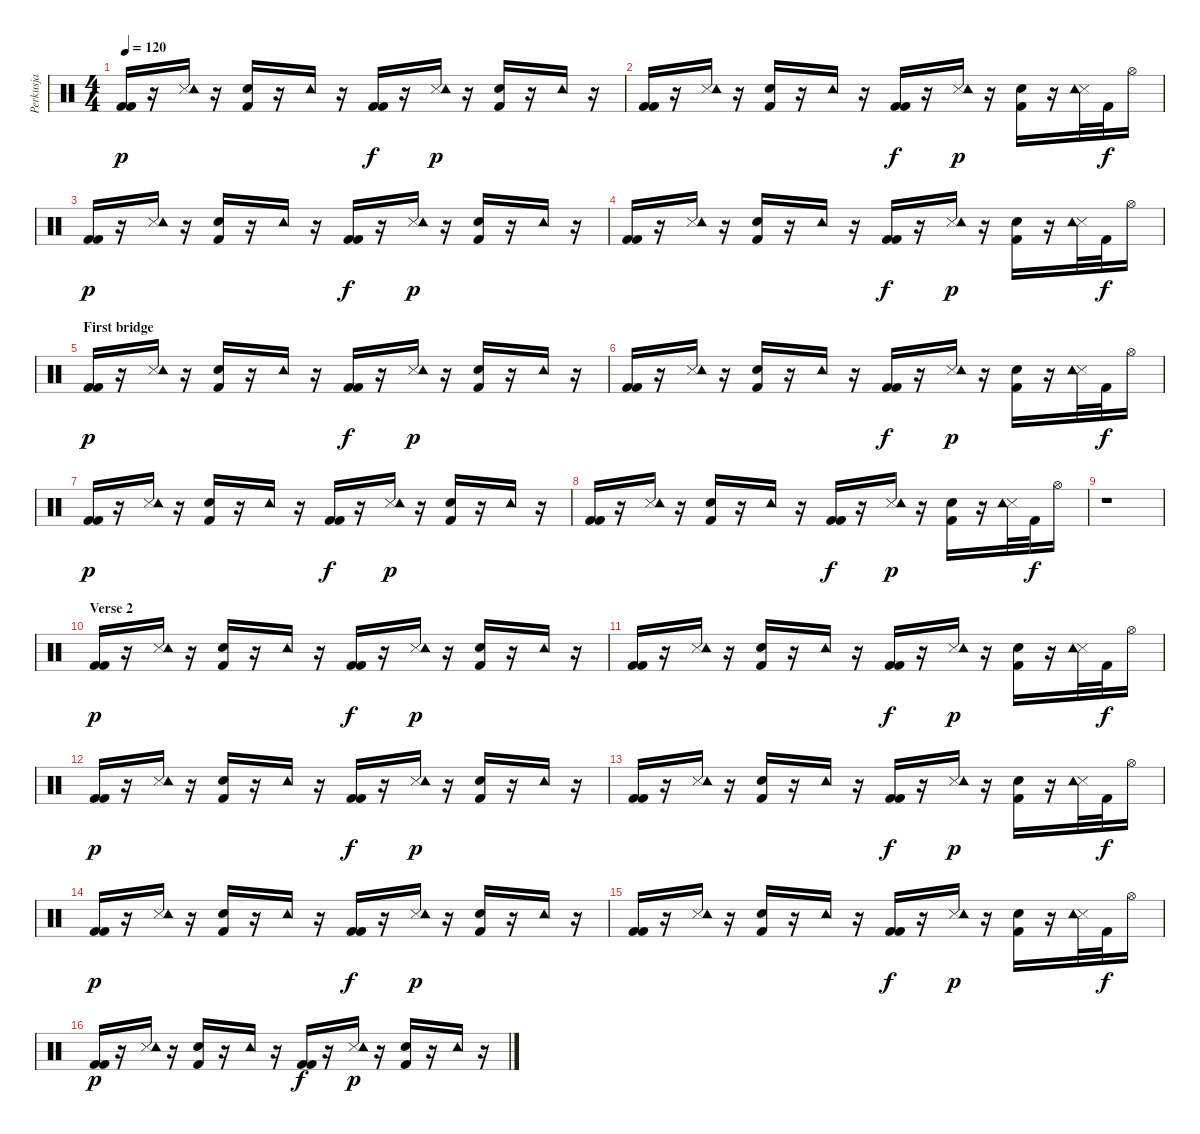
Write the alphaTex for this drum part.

\track ("Perkusja" "Perkusja") {instrument percussion}
\staff {score}
\articulation defaults
\ts (4 4)
\tempo 120
\clef neutral
\ks c
("Kick (hit) 2" "Kick (hit) 2").16{dy p} r.16 ("Snare (side stick) 3" "Tambourine (hit)").16 r.16 ("Electric Snare (hit)" "Kick (hit) 2").16 r.16 "Tambourine (hit)".16 r.16 ("Kick (hit) 2" "Kick (hit) 2").16{dy f} r.16 ("Snare (side stick) 3" "Tambourine (hit)").16{dy p} r.16 ("Electric Snare (hit)" "Kick (hit) 2").16 r.16 "Tambourine (hit)".16 r.16 |
("Kick (hit) 2" "Kick (hit) 2").16 r.16 ("Snare (side stick) 3" "Tambourine (hit)").16 r.16 ("Electric Snare (hit)" "Kick (hit) 2").16 r.16 "Tambourine (hit)".16 r.16 ("Kick (hit) 2" "Kick (hit) 2").16{dy f} r.16 ("Snare (side stick) 3" "Tambourine (hit)").16{dy p} r.16 ("Electric Snare (hit)" "Kick (hit) 2").16 r.16 ("Snare (side stick) 3" "Tambourine (hit)").32 "Kick (hit) 2".32{dy f} "Hi-Hat (open)".16 |
("Kick (hit) 2" "Kick (hit) 2").16{dy p} r.16 ("Snare (side stick) 3" "Tambourine (hit)").16 r.16 ("Electric Snare (hit)" "Kick (hit) 2").16 r.16 "Tambourine (hit)".16 r.16 ("Kick (hit) 2" "Kick (hit) 2").16{dy f} r.16 ("Snare (side stick) 3" "Tambourine (hit)").16{dy p} r.16 ("Electric Snare (hit)" "Kick (hit) 2").16 r.16 "Tambourine (hit)".16 r.16 |
("Kick (hit) 2" "Kick (hit) 2").16 r.16 ("Snare (side stick) 3" "Tambourine (hit)").16 r.16 ("Electric Snare (hit)" "Kick (hit) 2").16 r.16 "Tambourine (hit)".16 r.16 ("Kick (hit) 2" "Kick (hit) 2").16{dy f} r.16 ("Snare (side stick) 3" "Tambourine (hit)").16{dy p} r.16 ("Electric Snare (hit)" "Kick (hit) 2").16 r.16 ("Snare (side stick) 3" "Tambourine (hit)").32 "Kick (hit) 2".32{dy f} "Hi-Hat (open)".16 |
\section ("" "First bridge")
("Kick (hit) 2" "Kick (hit) 2").16{dy p} r.16 ("Snare (side stick) 3" "Tambourine (hit)").16 r.16 ("Electric Snare (hit)" "Kick (hit) 2").16 r.16 "Tambourine (hit)".16 r.16 ("Kick (hit) 2" "Kick (hit) 2").16{dy f} r.16 ("Snare (side stick) 3" "Tambourine (hit)").16{dy p} r.16 ("Electric Snare (hit)" "Kick (hit) 2").16 r.16 "Tambourine (hit)".16 r.16 |
("Kick (hit) 2" "Kick (hit) 2").16 r.16 ("Snare (side stick) 3" "Tambourine (hit)").16 r.16 ("Electric Snare (hit)" "Kick (hit) 2").16 r.16 "Tambourine (hit)".16 r.16 ("Kick (hit) 2" "Kick (hit) 2").16{dy f} r.16 ("Snare (side stick) 3" "Tambourine (hit)").16{dy p} r.16 ("Electric Snare (hit)" "Kick (hit) 2").16 r.16 ("Snare (side stick) 3" "Tambourine (hit)").32 "Kick (hit) 2".32{dy f} "Hi-Hat (open)".16 |
("Kick (hit) 2" "Kick (hit) 2").16{dy p} r.16 ("Snare (side stick) 3" "Tambourine (hit)").16 r.16 ("Electric Snare (hit)" "Kick (hit) 2").16 r.16 "Tambourine (hit)".16 r.16 ("Kick (hit) 2" "Kick (hit) 2").16{dy f} r.16 ("Snare (side stick) 3" "Tambourine (hit)").16{dy p} r.16 ("Electric Snare (hit)" "Kick (hit) 2").16 r.16 "Tambourine (hit)".16 r.16 |
("Kick (hit) 2" "Kick (hit) 2").16 r.16 ("Snare (side stick) 3" "Tambourine (hit)").16 r.16 ("Electric Snare (hit)" "Kick (hit) 2").16 r.16 "Tambourine (hit)".16 r.16 ("Kick (hit) 2" "Kick (hit) 2").16{dy f} r.16 ("Snare (side stick) 3" "Tambourine (hit)").16{dy p} r.16 ("Electric Snare (hit)" "Kick (hit) 2").16 r.16 ("Snare (side stick) 3" "Tambourine (hit)").32 "Kick (hit) 2".32{dy f} "Hi-Hat (open)".16 |
r.1 |
\section ("" "Verse 2")
("Kick (hit) 2" "Kick (hit) 2").16{dy p} r.16 ("Snare (side stick) 3" "Tambourine (hit)").16 r.16 ("Electric Snare (hit)" "Kick (hit) 2").16 r.16 "Tambourine (hit)".16 r.16 ("Kick (hit) 2" "Kick (hit) 2").16{dy f} r.16 ("Snare (side stick) 3" "Tambourine (hit)").16{dy p} r.16 ("Electric Snare (hit)" "Kick (hit) 2").16 r.16 "Tambourine (hit)".16 r.16 |
("Kick (hit) 2" "Kick (hit) 2").16 r.16 ("Snare (side stick) 3" "Tambourine (hit)").16 r.16 ("Electric Snare (hit)" "Kick (hit) 2").16 r.16 "Tambourine (hit)".16 r.16 ("Kick (hit) 2" "Kick (hit) 2").16{dy f} r.16 ("Snare (side stick) 3" "Tambourine (hit)").16{dy p} r.16 ("Electric Snare (hit)" "Kick (hit) 2").16 r.16 ("Snare (side stick) 3" "Tambourine (hit)").32 "Kick (hit) 2".32{dy f} "Hi-Hat (open)".16 |
("Kick (hit) 2" "Kick (hit) 2").16{dy p} r.16 ("Snare (side stick) 3" "Tambourine (hit)").16 r.16 ("Electric Snare (hit)" "Kick (hit) 2").16 r.16 "Tambourine (hit)".16 r.16 ("Kick (hit) 2" "Kick (hit) 2").16{dy f} r.16 ("Snare (side stick) 3" "Tambourine (hit)").16{dy p} r.16 ("Electric Snare (hit)" "Kick (hit) 2").16 r.16 "Tambourine (hit)".16 r.16 |
("Kick (hit) 2" "Kick (hit) 2").16 r.16 ("Snare (side stick) 3" "Tambourine (hit)").16 r.16 ("Electric Snare (hit)" "Kick (hit) 2").16 r.16 "Tambourine (hit)".16 r.16 ("Kick (hit) 2" "Kick (hit) 2").16{dy f} r.16 ("Snare (side stick) 3" "Tambourine (hit)").16{dy p} r.16 ("Electric Snare (hit)" "Kick (hit) 2").16 r.16 ("Snare (side stick) 3" "Tambourine (hit)").32 "Kick (hit) 2".32{dy f} "Hi-Hat (open)".16 |
("Kick (hit) 2" "Kick (hit) 2").16{dy p} r.16 ("Snare (side stick) 3" "Tambourine (hit)").16 r.16 ("Electric Snare (hit)" "Kick (hit) 2").16 r.16 "Tambourine (hit)".16 r.16 ("Kick (hit) 2" "Kick (hit) 2").16{dy f} r.16 ("Snare (side stick) 3" "Tambourine (hit)").16{dy p} r.16 ("Electric Snare (hit)" "Kick (hit) 2").16 r.16 "Tambourine (hit)".16 r.16 |
("Kick (hit) 2" "Kick (hit) 2").16 r.16 ("Snare (side stick) 3" "Tambourine (hit)").16 r.16 ("Electric Snare (hit)" "Kick (hit) 2").16 r.16 "Tambourine (hit)".16 r.16 ("Kick (hit) 2" "Kick (hit) 2").16{dy f} r.16 ("Snare (side stick) 3" "Tambourine (hit)").16{dy p} r.16 ("Electric Snare (hit)" "Kick (hit) 2").16 r.16 ("Snare (side stick) 3" "Tambourine (hit)").32 "Kick (hit) 2".32{dy f} "Hi-Hat (open)".16 |
("Kick (hit) 2" "Kick (hit) 2").16{dy p} r.16 ("Snare (side stick) 3" "Tambourine (hit)").16 r.16 ("Electric Snare (hit)" "Kick (hit) 2").16 r.16 "Tambourine (hit)".16 r.16 ("Kick (hit) 2" "Kick (hit) 2").16{dy f} r.16 ("Snare (side stick) 3" "Tambourine (hit)").16{dy p} r.16 ("Electric Snare (hit)" "Kick (hit) 2").16 r.16 "Tambourine (hit)".16 r.16
